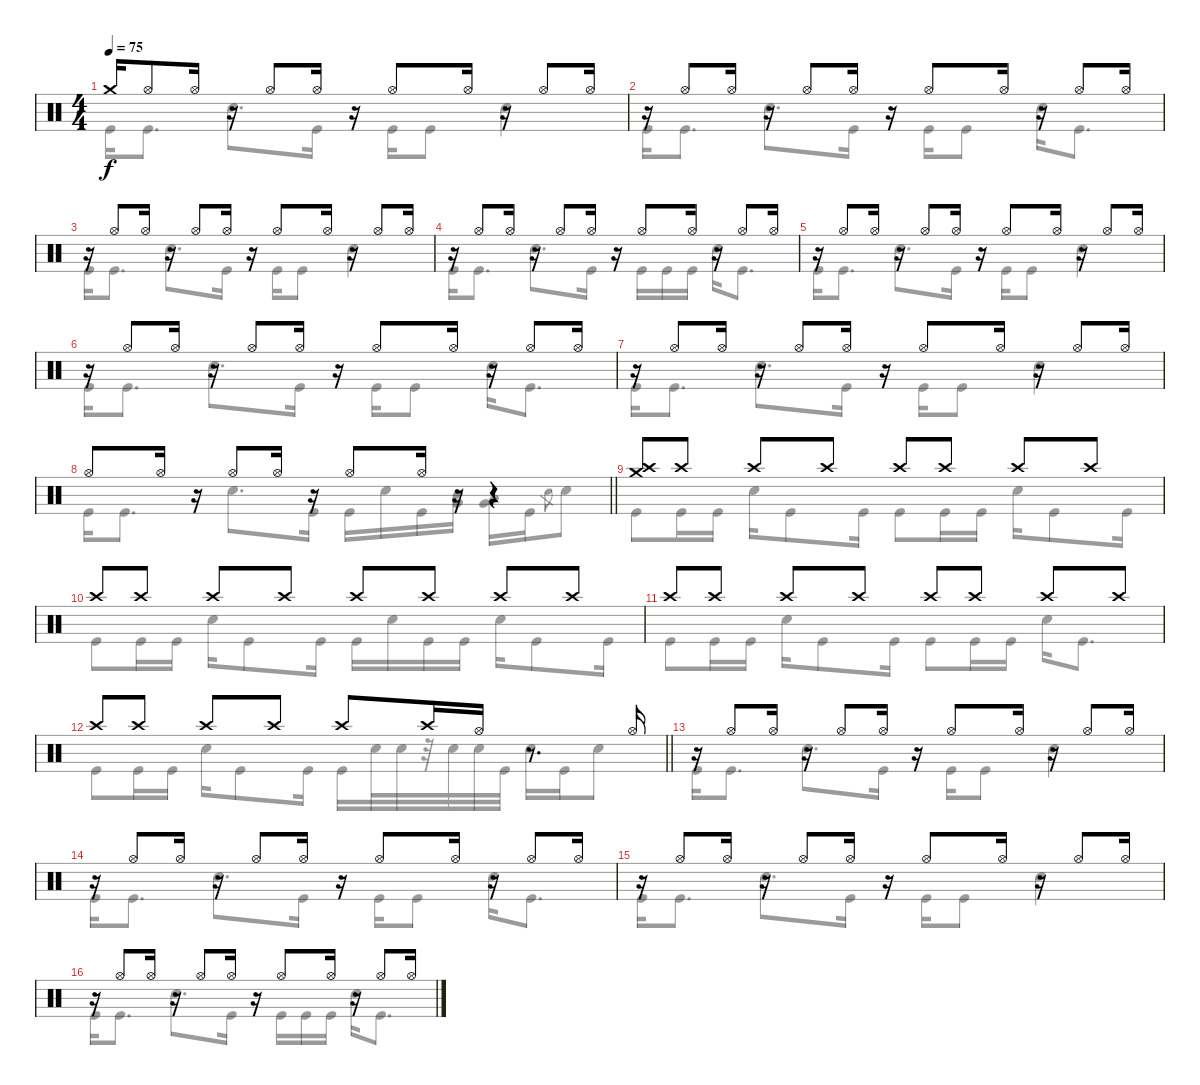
\track "" {instrument percussion}
\staff {score}
\articulation defaults
\voice
\ts (4 4)
\tempo 75
\clef neutral
\ks c "Crash medium (hit)".16{dy f} "Hi-Hat (open)".8 "Hi-Hat (open)".16
r.16 "Hi-Hat (open)".8 "Hi-Hat (open)".16 r.16 "Hi-Hat (open)".8 "Hi-Hat (open)".16 r.16 "Hi-Hat (open)".8 "Hi-Hat (open)".16 |
r.16 "Hi-Hat (open)".8 "Hi-Hat (open)".16 r.16 "Hi-Hat (open)".8 "Hi-Hat (open)".16 r.16 "Hi-Hat (open)".8 "Hi-Hat (open)".16 r.16 "Hi-Hat (open)".8 "Hi-Hat (open)".16 |
r.16 "Hi-Hat (open)".8 "Hi-Hat (open)".16 r.16 "Hi-Hat (open)".8 "Hi-Hat (open)".16 r.16 "Hi-Hat (open)".8 "Hi-Hat (open)".16 r.16 "Hi-Hat (open)".8 "Hi-Hat (open)".16 |
r.16 "Hi-Hat (open)".8 "Hi-Hat (open)".16 r.16 "Hi-Hat (open)".8 "Hi-Hat (open)".16 r.16 "Hi-Hat (open)".8 "Hi-Hat (open)".16 r.16 "Hi-Hat (open)".8 "Hi-Hat (open)".16 |
r.16 "Hi-Hat (open)".8 "Hi-Hat (open)".16 r.16 "Hi-Hat (open)".8 "Hi-Hat (open)".16 r.16 "Hi-Hat (open)".8 "Hi-Hat (open)".16 r.16 "Hi-Hat (open)".8 "Hi-Hat (open)".16 |
r.16 "Hi-Hat (open)".8 "Hi-Hat (open)".16 r.16 "Hi-Hat (open)".8 "Hi-Hat (open)".16 r.16 "Hi-Hat (open)".8 "Hi-Hat (open)".16 r.16 "Hi-Hat (open)".8 "Hi-Hat (open)".16 |
r.16 "Hi-Hat (open)".8 "Hi-Hat (open)".16 r.16 "Hi-Hat (open)".8 "Hi-Hat (open)".16 r.16 "Hi-Hat (open)".8 "Hi-Hat (open)".16 r.16 "Hi-Hat (open)".8 "Hi-Hat (open)".16 |
\barLineRight lightlight "Hi-Hat (open)".8 "Hi-Hat (open)".16
r.16 "Hi-Hat (open)".8 "Hi-Hat (open)".16 r.16 "Hi-Hat (open)".8 "Hi-Hat (open)".16 r.16 r.4 |
("Crash medium (hit)" "Crash high (hit)").8 "Crash high (hit)".8 "Crash high (hit)".8 "Crash high (hit)".8 "Crash high (hit)".8 "Crash high (hit)".8 "Crash high (hit)".8 "Crash high (hit)".8 |
"Crash high (hit)".8 "Crash high (hit)".8 "Crash high (hit)".8 "Crash high (hit)".8 "Crash high (hit)".8 "Crash high (hit)".8 "Crash high (hit)".8 "Crash high (hit)".8 |
"Crash high (hit)".8 "Crash high (hit)".8 "Crash high (hit)".8 "Crash high (hit)".8 "Crash high (hit)".8 "Crash high (hit)".8 "Crash high (hit)".8 "Crash high (hit)".8 |
\barLineRight lightlight "Crash high (hit)".8 "Crash high (hit)".8 "Crash high (hit)".8 "Crash high (hit)".8 "Crash high (hit)".8 "Crash high (hit)".16 "Hi-Hat (open)".16
r.8{d} "Hi-Hat (open)".16 |
r.16 "Hi-Hat (open)".8 "Hi-Hat (open)".16 r.16 "Hi-Hat (open)".8 "Hi-Hat (open)".16 r.16 "Hi-Hat (open)".8 "Hi-Hat (open)".16 r.16 "Hi-Hat (open)".8 "Hi-Hat (open)".16 |
r.16 "Hi-Hat (open)".8 "Hi-Hat (open)".16 r.16 "Hi-Hat (open)".8 "Hi-Hat (open)".16 r.16 "Hi-Hat (open)".8 "Hi-Hat (open)".16 r.16 "Hi-Hat (open)".8 "Hi-Hat (open)".16 |
r.16 "Hi-Hat (open)".8 "Hi-Hat (open)".16 r.16 "Hi-Hat (open)".8 "Hi-Hat (open)".16 r.16 "Hi-Hat (open)".8 "Hi-Hat (open)".16 r.16 "Hi-Hat (open)".8 "Hi-Hat (open)".16 |
r.16 "Hi-Hat (open)".8 "Hi-Hat (open)".16 r.16 "Hi-Hat (open)".8 "Hi-Hat (open)".16 r.16 "Hi-Hat (open)".8 "Hi-Hat (open)".16 r.16 "Hi-Hat (open)".8 "Hi-Hat (open)".16
\voice
\clef neutral
\ottava regular
\simile none
\ks c "Kick (hit)".16{dy f} "Kick (hit)".8{d} "Snare (hit) 2".8{d} "Kick (hit)".16
r.16 "Kick (hit)".16 "Kick (hit)".8 "Snare (hit) 2".4 |
"Kick (hit)".16 "Kick (hit)".8{d} "Snare (hit) 2".8{d} "Kick (hit)".16 r.16 "Kick (hit)".16 "Kick (hit)".8 "Snare (hit) 2".16 "Kick (hit)".8{d} |
"Kick (hit)".16 "Kick (hit)".8{d} "Snare (hit) 2".8{d} "Kick (hit)".16 r.16 "Kick (hit)".16 "Kick (hit)".8 "Snare (hit) 2".4 |
"Kick (hit)".16 "Kick (hit)".8{d} "Snare (hit) 2".8{d} "Kick (hit)".16 r.16 "Kick (hit)".16 "Kick (hit)".16 "Kick (hit)".16 "Snare (hit) 2".16 "Kick (hit)".8{d} |
"Kick (hit)".16 "Kick (hit)".8{d} "Snare (hit) 2".8{d} "Kick (hit)".16 r.16 "Kick (hit)".16 "Kick (hit)".8 "Snare (hit) 2".4 |
"Kick (hit)".16 "Kick (hit)".8{d} "Snare (hit) 2".8{d} "Kick (hit)".16 r.16 "Kick (hit)".16 "Kick (hit)".8 "Snare (hit) 2".16 "Kick (hit)".8{d} |
"Kick (hit)".16 "Kick (hit)".8{d} "Snare (hit) 2".8{d} "Kick (hit)".16 r.16 "Kick (hit)".16 "Kick (hit)".8 "Snare (hit) 2".4 |
\barLineRight lightlight "Kick (hit)".16 "Kick (hit)".8{d} "Snare (hit) 2".8{d} "Kick (hit)".16 "Kick (hit)".16 "Snare (hit) 2".16 "Kick (hit)".16
("Mid Tom (hit)" "Very Low Tom (hit)").16 ("Low Tom (hit)" "Very Low Tom (hit)").16 "Kick (hit)".16 "Snare (hit) 2".8{gr} "Snare (hit) 2".8 |
"Kick (hit)".8 "Kick (hit)".16 "Kick (hit)".16 "Snare (hit) 2".16 "Kick (hit)".8 "Kick (hit)".16 "Kick (hit)".8 "Kick (hit)".16 "Kick (hit)".16 "Snare (hit) 2".16 "Kick (hit)".8 "Kick (hit)".16 |
"Kick (hit)".8 "Kick (hit)".16 "Kick (hit)".16 "Snare (hit) 2".16 "Kick (hit)".8 "Kick (hit)".16 "Kick (hit)".16 "Snare (hit) 2".16 "Kick (hit)".16 "Kick (hit)".16 "Snare (hit) 2".16 "Kick (hit)".8 "Kick (hit)".16 |
"Kick (hit)".8 "Kick (hit)".16 "Kick (hit)".16 "Snare (hit) 2".16 "Kick (hit)".8 "Kick (hit)".16 "Kick (hit)".8 "Kick (hit)".16 "Kick (hit)".16 "Snare (hit) 2".16 "Kick (hit)".8{d} |
\barLineRight lightlight "Kick (hit)".8 "Kick (hit)".16 "Kick (hit)".16 "Snare (hit) 2".16 "Kick (hit)".8 "Kick (hit)".16 "Kick (hit)".16 "Snare (hit) 2".32 "Snare (hit) 2".32
r.32 "Snare (hit) 2".32 "Snare (hit) 2".32 "Kick (hit)".32 "Snare (hit) 2".16 "Kick (hit)".16 "Snare (hit) 2".8 |
"Kick (hit)".16 "Kick (hit)".8{d} "Snare (hit) 2".8{d} "Kick (hit)".16 r.16 "Kick (hit)".16 "Kick (hit)".8 "Snare (hit) 2".4 |
"Kick (hit)".16 "Kick (hit)".8{d} "Snare (hit) 2".8{d} "Kick (hit)".16 r.16 "Kick (hit)".16 "Kick (hit)".8 "Snare (hit) 2".16 "Kick (hit)".8{d} |
"Kick (hit)".16 "Kick (hit)".8{d} "Snare (hit) 2".8{d} "Kick (hit)".16 r.16 "Kick (hit)".16 "Kick (hit)".8 "Snare (hit) 2".4 |
"Kick (hit)".16 "Kick (hit)".8{d} "Snare (hit) 2".8{d} "Kick (hit)".16 r.16 "Kick (hit)".16 "Kick (hit)".16 "Kick (hit)".16 "Snare (hit) 2".16 "Kick (hit)".8{d}
